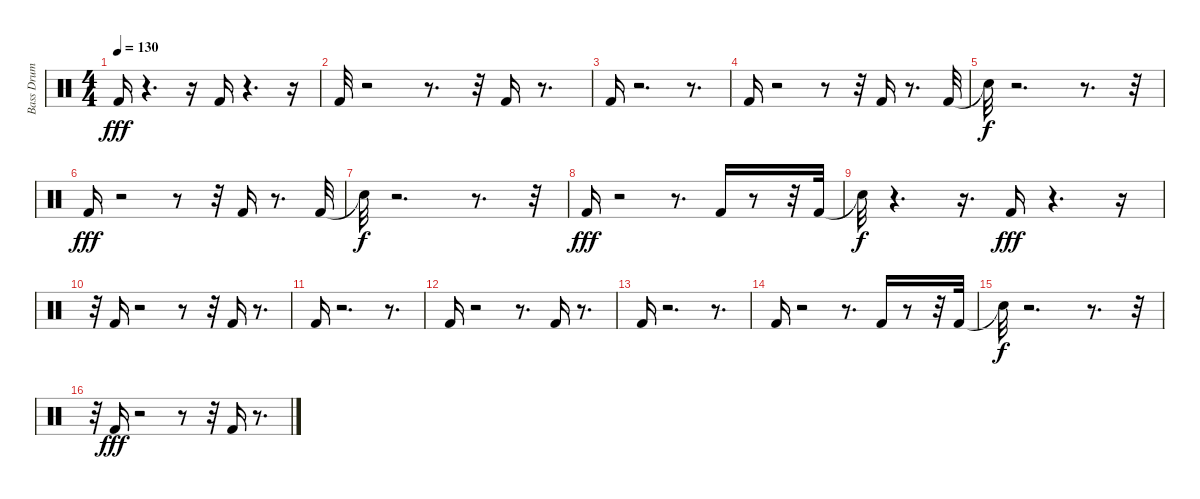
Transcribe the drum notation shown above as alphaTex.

\track ("Bass Drum" "Bass Drum") {instrument percussion}
\staff {score}
\articulation defaults
\ts (4 4)
\tempo 130
\clef neutral
\ks c "Kick (hit) 2".16{dy fff}
r.4{d} r.16 "Kick (hit) 2".16 r.4{d} r.16 |
"Kick (hit) 2".32 r.2 r.8{d} r.32 "Kick (hit) 2".16 r.8{d} |
"Kick (hit) 2".16 r.2{d} r.8{d} |
"Kick (hit) 2".16 r.2 r.8 r.32 "Kick (hit) 2".16 r.8{d} "Kick (hit) 2".32 |
"Snare (hit)"{t}.32{dy f} r.2{d} r.8{d} r.32 |
"Kick (hit) 2".16{dy fff} r.2 r.8 r.32 "Kick (hit) 2".16 r.8{d} "Kick (hit) 2".32 |
"Snare (hit)"{t}.32{dy f} r.2{d} r.8{d} r.32 |
"Kick (hit) 2".16{dy fff} r.2 r.8{d} "Kick (hit) 2".16 r.8 r.32 "Kick (hit) 2".32 |
"Snare (hit)"{t}.32{dy f} r.4{d} r.16{d} "Kick (hit) 2".16{dy fff} r.4{d} r.16 |
r.32 "Kick (hit) 2".16 r.2 r.8 r.32 "Kick (hit) 2".16 r.8{d} |
"Kick (hit) 2".16 r.2{d} r.8{d} |
"Kick (hit) 2".16 r.2 r.8{d} "Kick (hit) 2".16 r.8{d} |
"Kick (hit) 2".16 r.2{d} r.8{d} |
"Kick (hit) 2".16 r.2 r.8{d} "Kick (hit) 2".16 r.8 r.32 "Kick (hit) 2".32 |
"Snare (hit)"{t}.32{dy f} r.2{d} r.8{d} r.32 |
r.32 "Kick (hit) 2".16{dy fff} r.2 r.8 r.32 "Kick (hit) 2".16 r.8{d}
